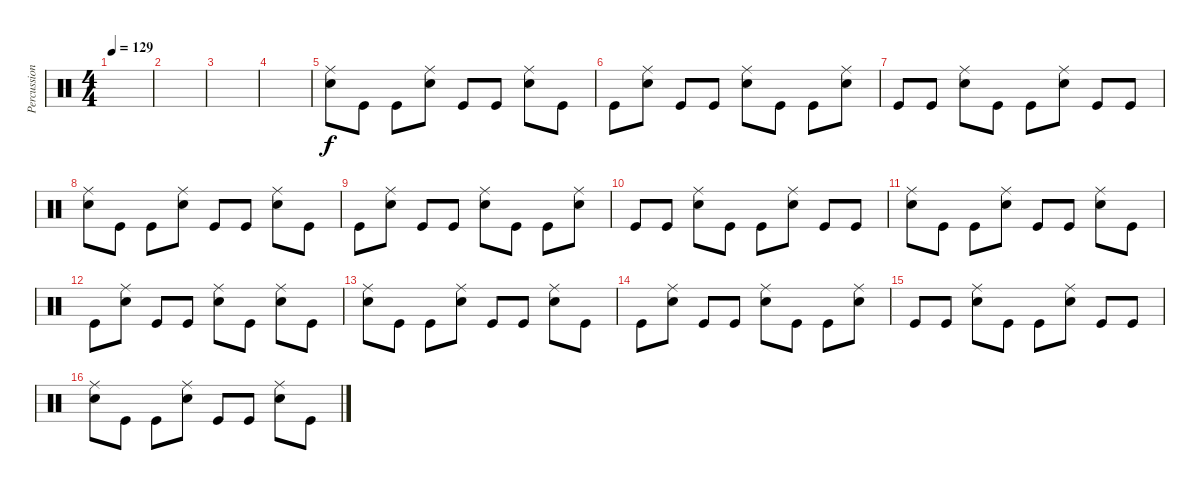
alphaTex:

\track ("Percussion" "Percussion") {instrument percussion}
\staff {score}
\articulation defaults
\ts (4 4)
\tempo 129
\clef neutral
\ks c
|
|
|
|
("Ride (middle)" "Electric Snare (hit)").8 "Kick (hit)".8 "Kick (hit)".8 ("Ride (middle)" "Electric Snare (hit)").8 "Kick (hit)".8 "Kick (hit)".8 ("Ride (middle)" "Electric Snare (hit)").8 "Kick (hit)".8 |
"Kick (hit)".8 ("Ride (middle)" "Electric Snare (hit)").8 "Kick (hit)".8 "Kick (hit)".8 ("Ride (middle)" "Electric Snare (hit)").8 "Kick (hit)".8 "Kick (hit)".8 ("Ride (middle)" "Electric Snare (hit)").8 |
"Kick (hit)".8 "Kick (hit)".8 ("Ride (middle)" "Electric Snare (hit)").8 "Kick (hit)".8 "Kick (hit)".8 ("Ride (middle)" "Electric Snare (hit)").8 "Kick (hit)".8 "Kick (hit)".8 |
("Ride (middle)" "Electric Snare (hit)").8 "Kick (hit)".8 "Kick (hit)".8 ("Ride (middle)" "Electric Snare (hit)").8 "Kick (hit)".8 "Kick (hit)".8 ("Ride (middle)" "Electric Snare (hit)").8 "Kick (hit)".8 |
"Kick (hit)".8 ("Ride (middle)" "Electric Snare (hit)").8 "Kick (hit)".8 "Kick (hit)".8 ("Ride (middle)" "Electric Snare (hit)").8 "Kick (hit)".8 "Kick (hit)".8 ("Ride (middle)" "Electric Snare (hit)").8 |
"Kick (hit)".8 "Kick (hit)".8 ("Ride (middle)" "Electric Snare (hit)").8 "Kick (hit)".8 "Kick (hit)".8 ("Ride (middle)" "Electric Snare (hit)").8 "Kick (hit)".8 "Kick (hit)".8 |
("Ride (middle)" "Electric Snare (hit)").8 "Kick (hit)".8 "Kick (hit)".8 ("Ride (middle)" "Electric Snare (hit)").8 "Kick (hit)".8 "Kick (hit)".8 ("Ride (middle)" "Electric Snare (hit)").8 "Kick (hit)".8 |
"Kick (hit)".8 ("Ride (middle)" "Electric Snare (hit)").8 "Kick (hit)".8 "Kick (hit)".8 ("Ride (middle)" "Electric Snare (hit)").8 "Kick (hit)".8 ("Ride (middle)" "Electric Snare (hit)").8 "Kick (hit)".8 |
("Ride (middle)" "Electric Snare (hit)").8 "Kick (hit)".8 "Kick (hit)".8 ("Ride (middle)" "Electric Snare (hit)").8 "Kick (hit)".8 "Kick (hit)".8 ("Ride (middle)" "Electric Snare (hit)").8 "Kick (hit)".8 |
"Kick (hit)".8 ("Ride (middle)" "Electric Snare (hit)").8 "Kick (hit)".8 "Kick (hit)".8 ("Ride (middle)" "Electric Snare (hit)").8 "Kick (hit)".8 "Kick (hit)".8 ("Ride (middle)" "Electric Snare (hit)").8 |
"Kick (hit)".8 "Kick (hit)".8 ("Ride (middle)" "Electric Snare (hit)").8 "Kick (hit)".8 "Kick (hit)".8 ("Ride (middle)" "Electric Snare (hit)").8 "Kick (hit)".8 "Kick (hit)".8 |
("Ride (middle)" "Electric Snare (hit)").8 "Kick (hit)".8 "Kick (hit)".8 ("Ride (middle)" "Electric Snare (hit)").8 "Kick (hit)".8 "Kick (hit)".8 ("Ride (middle)" "Electric Snare (hit)").8 "Kick (hit)".8
